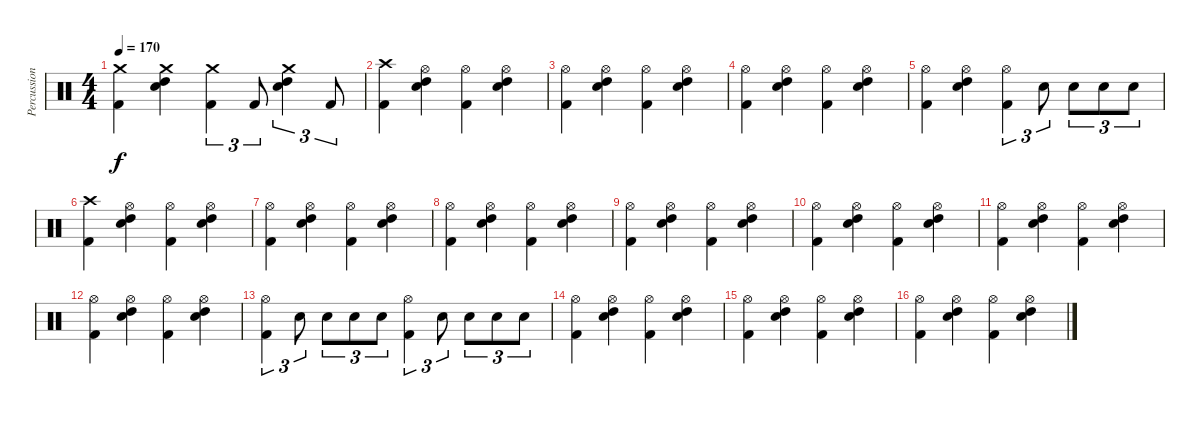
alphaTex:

\track ("Percussion" "Percussion") {instrument percussion}
\staff {score}
\articulation defaults
\ts (4 4)
\tempo 170
\clef neutral
\ks c
("Crash medium (hit)" "Kick (hit) 2").4{dy f} ("Crash medium (hit)" "High Tom (hit)" "Snare (hit) 2").4 ("Crash medium (hit)" "Kick (hit) 2").4{tu (3 2)} "Kick (hit) 2".8{tu (3 2)} ("Crash medium (hit)" "High Tom (hit)" "Snare (hit) 2").4{tu (3 2)} "Kick (hit) 2".8{tu (3 2)} |
("Crash high (hit)" "Kick (hit) 2").4 ("Hi-Hat (open)" "High Tom (hit)" "Snare (hit) 2").4 ("Hi-Hat (open)" "Kick (hit) 2").4 ("Hi-Hat (open)" "High Tom (hit)" "Snare (hit) 2").4 |
("Hi-Hat (open)" "Kick (hit) 2").4 ("Hi-Hat (open)" "High Tom (hit)" "Snare (hit) 2").4 ("Hi-Hat (open)" "Kick (hit) 2").4 ("Hi-Hat (open)" "High Tom (hit)" "Snare (hit) 2").4 |
("Hi-Hat (open)" "Kick (hit) 2").4 ("Hi-Hat (open)" "High Tom (hit)" "Snare (hit) 2").4 ("Hi-Hat (open)" "Kick (hit) 2").4 ("Hi-Hat (open)" "High Tom (hit)" "Snare (hit) 2").4 |
("Hi-Hat (open)" "Kick (hit) 2").4 ("Hi-Hat (open)" "High Tom (hit)" "Snare (hit) 2").4 ("Hi-Hat (open)" "Kick (hit) 2").4{tu (3 2)} "Snare (hit) 2".8{tu (3 2)} "Snare (hit) 2".8{tu (3 2)} "Snare (hit) 2".8{tu (3 2)} "Snare (hit) 2".8{tu (3 2)} |
("Crash high (hit)" "Kick (hit) 2").4 ("Hi-Hat (open)" "High Tom (hit)" "Snare (hit) 2").4 ("Hi-Hat (open)" "Kick (hit) 2").4 ("Hi-Hat (open)" "High Tom (hit)" "Snare (hit) 2").4 |
("Hi-Hat (open)" "Kick (hit) 2").4 ("Hi-Hat (open)" "High Tom (hit)" "Snare (hit) 2").4 ("Hi-Hat (open)" "Kick (hit) 2").4 ("Hi-Hat (open)" "High Tom (hit)" "Snare (hit) 2").4 |
("Hi-Hat (open)" "Kick (hit) 2").4 ("Hi-Hat (open)" "High Tom (hit)" "Snare (hit) 2").4 ("Hi-Hat (open)" "Kick (hit) 2").4 ("Hi-Hat (open)" "High Tom (hit)" "Snare (hit) 2").4 |
("Hi-Hat (open)" "Kick (hit) 2").4 ("Hi-Hat (open)" "High Tom (hit)" "Snare (hit) 2").4 ("Hi-Hat (open)" "Kick (hit) 2").4 ("Hi-Hat (open)" "High Tom (hit)" "Snare (hit) 2").4 |
("Hi-Hat (open)" "Kick (hit) 2").4 ("Hi-Hat (open)" "High Tom (hit)" "Snare (hit) 2").4 ("Hi-Hat (open)" "Kick (hit) 2").4 ("Hi-Hat (open)" "High Tom (hit)" "Snare (hit) 2").4 |
("Hi-Hat (open)" "Kick (hit) 2").4 ("Hi-Hat (open)" "High Tom (hit)" "Snare (hit) 2").4 ("Hi-Hat (open)" "Kick (hit) 2").4 ("Hi-Hat (open)" "High Tom (hit)" "Snare (hit) 2").4 |
("Hi-Hat (open)" "Kick (hit) 2").4 ("Hi-Hat (open)" "High Tom (hit)" "Snare (hit) 2").4 ("Hi-Hat (open)" "Kick (hit) 2").4 ("Hi-Hat (open)" "High Tom (hit)" "Snare (hit) 2").4 |
("Hi-Hat (open)" "Kick (hit) 2").4{tu (3 2)} "Snare (hit) 2".8{tu (3 2)} "Snare (hit) 2".8{tu (3 2)} "Snare (hit) 2".8{tu (3 2)} "Snare (hit) 2".8{tu (3 2)} ("Hi-Hat (open)" "Kick (hit) 2").4{tu (3 2)} "Snare (hit) 2".8{tu (3 2)} "Snare (hit) 2".8{tu (3 2)} "Snare (hit) 2".8{tu (3 2)} "Snare (hit) 2".8{tu (3 2)} |
("Hi-Hat (open)" "Kick (hit) 2").4 ("Hi-Hat (open)" "High Tom (hit)" "Snare (hit) 2").4 ("Hi-Hat (open)" "Kick (hit) 2").4 ("Hi-Hat (open)" "High Tom (hit)" "Snare (hit) 2").4 |
("Hi-Hat (open)" "Kick (hit) 2").4 ("Hi-Hat (open)" "High Tom (hit)" "Snare (hit) 2").4 ("Hi-Hat (open)" "Kick (hit) 2").4 ("Hi-Hat (open)" "High Tom (hit)" "Snare (hit) 2").4 |
("Hi-Hat (open)" "Kick (hit) 2").4 ("Hi-Hat (open)" "High Tom (hit)" "Snare (hit) 2").4 ("Hi-Hat (open)" "Kick (hit) 2").4 ("Hi-Hat (open)" "High Tom (hit)" "Snare (hit) 2").4
